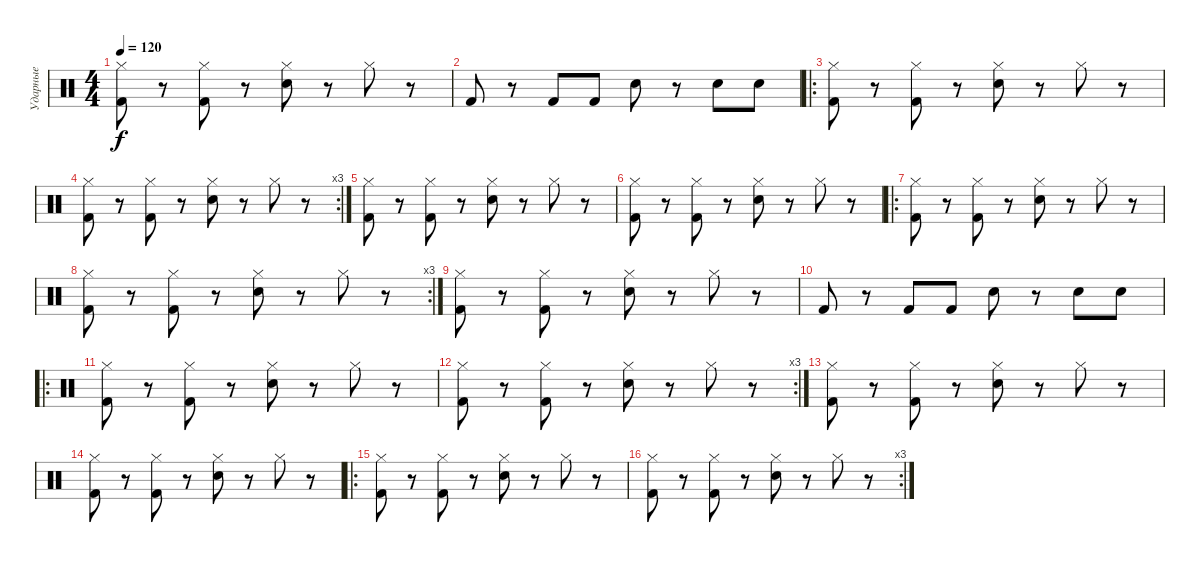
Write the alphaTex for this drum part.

\track ("Ударные" "Ударные") {instrument percussion}
\staff {score}
\articulation defaults
\ts (4 4)
\tempo 120
\clef neutral
\ks c
("Hi-Hat (closed)" "Kick (hit) 2").8{dy f} r.8 ("Hi-Hat (closed)" "Kick (hit) 2").8 r.8 ("Hi-Hat (closed)" "Electric Snare (hit)").8 r.8 "Hi-Hat (closed)".8 r.8 |
"Kick (hit) 2".8 r.8 "Kick (hit) 2".8 "Kick (hit) 2".8 "Electric Snare (hit)".8 r.8 "Electric Snare (hit)".8 "Electric Snare (hit)".8 |
\ro
("Hi-Hat (closed)" "Kick (hit) 2").8 r.8 ("Hi-Hat (closed)" "Kick (hit) 2").8 r.8 ("Hi-Hat (closed)" "Electric Snare (hit)").8 r.8 "Hi-Hat (closed)".8 r.8 |
\rc 3
("Hi-Hat (closed)" "Kick (hit) 2").8 r.8 ("Hi-Hat (closed)" "Kick (hit) 2").8 r.8 ("Hi-Hat (closed)" "Electric Snare (hit)").8 r.8 "Hi-Hat (closed)".8 r.8 |
("Hi-Hat (closed)" "Kick (hit) 2").8 r.8 ("Hi-Hat (closed)" "Kick (hit) 2").8 r.8 ("Hi-Hat (closed)" "Electric Snare (hit)").8 r.8 "Hi-Hat (closed)".8 r.8 |
("Hi-Hat (closed)" "Kick (hit) 2").8 r.8 ("Hi-Hat (closed)" "Kick (hit) 2").8 r.8 ("Hi-Hat (closed)" "Electric Snare (hit)").8 r.8 "Hi-Hat (closed)".8 r.8 |
\ro
("Hi-Hat (closed)" "Kick (hit) 2").8 r.8 ("Hi-Hat (closed)" "Kick (hit) 2").8 r.8 ("Hi-Hat (closed)" "Electric Snare (hit)").8 r.8 "Hi-Hat (closed)".8 r.8 |
\rc 3
("Hi-Hat (closed)" "Kick (hit) 2").8 r.8 ("Hi-Hat (closed)" "Kick (hit) 2").8 r.8 ("Hi-Hat (closed)" "Electric Snare (hit)").8 r.8 "Hi-Hat (closed)".8 r.8 |
("Hi-Hat (closed)" "Kick (hit) 2").8 r.8 ("Hi-Hat (closed)" "Kick (hit) 2").8 r.8 ("Hi-Hat (closed)" "Electric Snare (hit)").8 r.8 "Hi-Hat (closed)".8 r.8 |
"Kick (hit) 2".8 r.8 "Kick (hit) 2".8 "Kick (hit) 2".8 "Electric Snare (hit)".8 r.8 "Electric Snare (hit)".8 "Electric Snare (hit)".8 |
\ro
("Hi-Hat (closed)" "Kick (hit) 2").8 r.8 ("Hi-Hat (closed)" "Kick (hit) 2").8 r.8 ("Hi-Hat (closed)" "Electric Snare (hit)").8 r.8 "Hi-Hat (closed)".8 r.8 |
\rc 3
("Hi-Hat (closed)" "Kick (hit) 2").8 r.8 ("Hi-Hat (closed)" "Kick (hit) 2").8 r.8 ("Hi-Hat (closed)" "Electric Snare (hit)").8 r.8 "Hi-Hat (closed)".8 r.8 |
("Hi-Hat (closed)" "Kick (hit) 2").8 r.8 ("Hi-Hat (closed)" "Kick (hit) 2").8 r.8 ("Hi-Hat (closed)" "Electric Snare (hit)").8 r.8 "Hi-Hat (closed)".8 r.8 |
("Hi-Hat (closed)" "Kick (hit) 2").8 r.8 ("Hi-Hat (closed)" "Kick (hit) 2").8 r.8 ("Hi-Hat (closed)" "Electric Snare (hit)").8 r.8 "Hi-Hat (closed)".8 r.8 |
\ro
("Hi-Hat (closed)" "Kick (hit) 2").8 r.8 ("Hi-Hat (closed)" "Kick (hit) 2").8 r.8 ("Hi-Hat (closed)" "Electric Snare (hit)").8 r.8 "Hi-Hat (closed)".8 r.8 |
\rc 3
("Hi-Hat (closed)" "Kick (hit) 2").8 r.8 ("Hi-Hat (closed)" "Kick (hit) 2").8 r.8 ("Hi-Hat (closed)" "Electric Snare (hit)").8 r.8 "Hi-Hat (closed)".8 r.8
